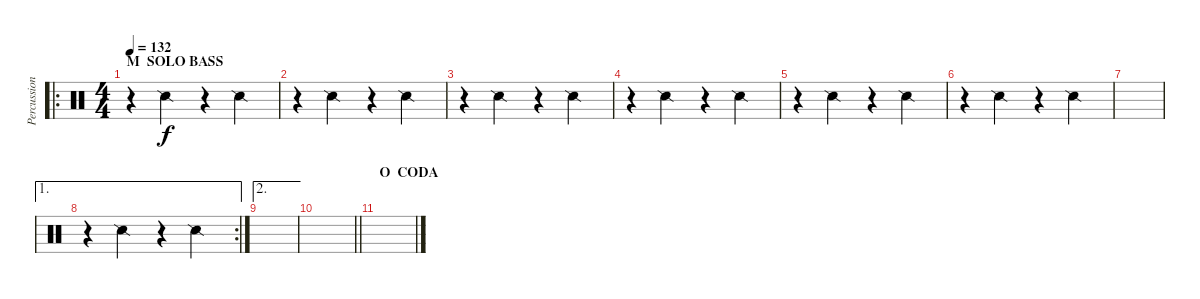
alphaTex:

\track ("Percussions" "Percussion") {instrument percussion}
\staff {score}
\articulation defaults
\ro
\ts (4 4)
\section ("" "M  SOLO BASS")
\tempo 132
\clef neutral
\ks c
r.4{dy f} "Snare (side stick) 2".4 r.4 "Snare (side stick) 2".4 |
r.4 "Snare (side stick) 2".4 r.4 "Snare (side stick) 2".4 |
r.4 "Snare (side stick) 2".4 r.4 "Snare (side stick) 2".4 |
r.4 "Snare (side stick) 2".4 r.4 "Snare (side stick) 2".4 |
r.4 "Snare (side stick) 2".4 r.4 "Snare (side stick) 2".4 |
r.4 "Snare (side stick) 2".4 r.4 "Snare (side stick) 2".4 |
|
\ae 1
\rc 2
r.4 "Snare (side stick) 2".4 r.4 "Snare (side stick) 2".4 |
\ae 2
|
\barLineRight lightlight
|
\section ("" "O  CODA")
